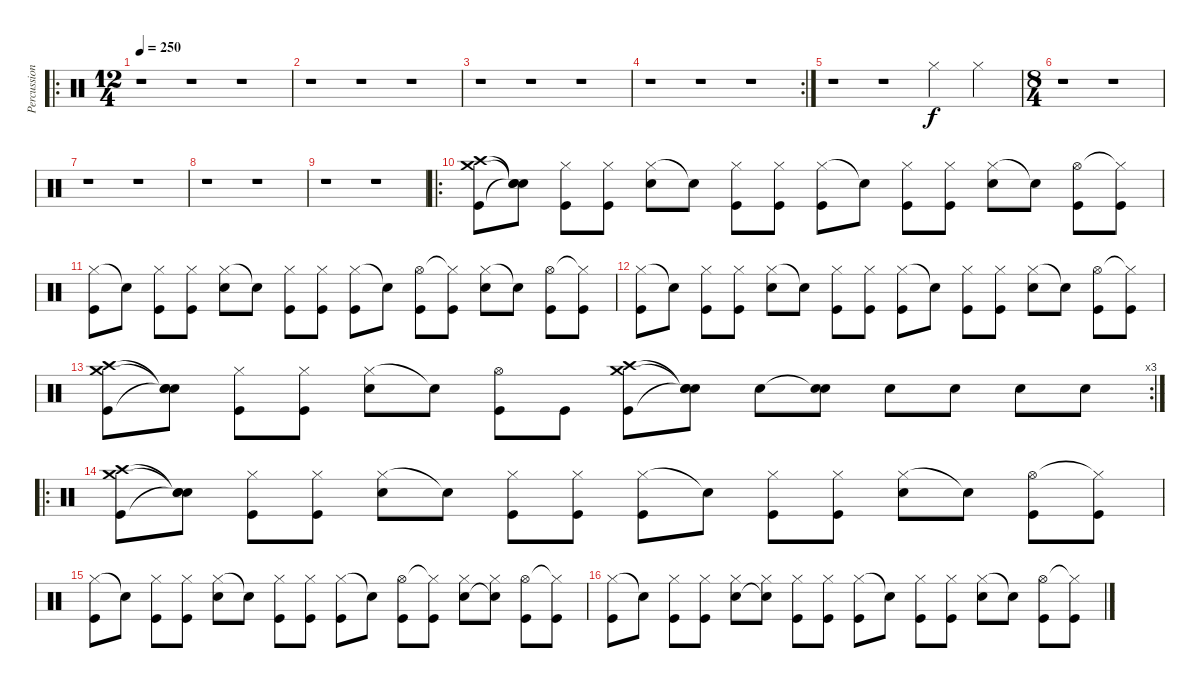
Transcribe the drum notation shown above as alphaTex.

\track ("Percussion" "Percussion") {instrument percussion}
\staff {score}
\articulation defaults
\ro
\ts (12 4)
\tempo 250
\clef neutral
\ks c
r.1{dy f} r.1 r.1 |
r.1 r.1 r.1 |
r.1 r.1 r.1 |
\rc 2
r.1 r.1 r.1 |
r.1 r.1 "Hi-Hat (closed)".2 "Hi-Hat (closed)".2 |
\ts (8 4)
r.1 r.1 |
r.1 r.1 |
r.1 r.1 |
r.1 r.1 |
\ro
("Crash medium (hit)" "Crash high (hit)" "Kick (hit)").8 ("Snare (hit)"{t} "Snare (hit)"{t} "Snare (hit)"{t}).8 ("Hi-Hat (closed)" "Kick (hit)").8 ("Hi-Hat (closed)" "Kick (hit)").8 ("Hi-Hat (closed)" "Snare (hit) 2").8 "Snare (hit)"{t}.8 ("Hi-Hat (closed)" "Kick (hit)").8 ("Hi-Hat (closed)" "Kick (hit)").8 ("Hi-Hat (closed)" "Kick (hit)").8 "Snare (hit)"{t}.8 ("Hi-Hat (closed)" "Kick (hit)").8 ("Hi-Hat (closed)" "Kick (hit)").8 ("Hi-Hat (closed)" "Snare (hit) 2").8 "Snare (hit)"{t}.8 ("Hi-Hat (open)" "Kick (hit)").8 ("Hi-Hat (closed)"{t} "Kick (hit)").8 |
("Hi-Hat (closed)" "Kick (hit)").8 "Snare (hit)"{t}.8 ("Hi-Hat (closed)" "Kick (hit)").8 ("Hi-Hat (closed)" "Kick (hit)").8 ("Hi-Hat (closed)" "Snare (hit) 2").8 "Snare (hit)"{t}.8 ("Hi-Hat (closed)" "Kick (hit)").8 ("Hi-Hat (closed)" "Kick (hit)").8 ("Hi-Hat (closed)" "Kick (hit)").8 "Snare (hit)"{t}.8 ("Hi-Hat (open)" "Kick (hit)").8 ("Hi-Hat (closed)"{t} "Kick (hit)").8 ("Hi-Hat (closed)" "Snare (hit) 2").8 "Snare (hit)"{t}.8 ("Hi-Hat (open)" "Kick (hit)").8 ("Hi-Hat (closed)"{t} "Kick (hit)").8 |
("Hi-Hat (closed)" "Kick (hit)").8 "Snare (hit)"{t}.8 ("Hi-Hat (closed)" "Kick (hit)").8 ("Hi-Hat (closed)" "Kick (hit)").8 ("Hi-Hat (closed)" "Snare (hit) 2").8 "Snare (hit)"{t}.8 ("Hi-Hat (closed)" "Kick (hit)").8 ("Hi-Hat (closed)" "Kick (hit)").8 ("Hi-Hat (closed)" "Kick (hit)").8 "Snare (hit)"{t}.8 ("Hi-Hat (closed)" "Kick (hit)").8 ("Hi-Hat (closed)" "Kick (hit)").8 ("Hi-Hat (closed)" "Snare (hit) 2").8 "Snare (hit)"{t}.8 ("Hi-Hat (open)" "Kick (hit)").8 ("Hi-Hat (closed)"{t} "Kick (hit)").8 |
\rc 3
("Crash medium (hit)" "Crash high (hit)" "Kick (hit)").8 ("Snare (hit)"{t} "Snare (hit)"{t} "Snare (hit)"{t}).8 ("Hi-Hat (closed)" "Kick (hit)").8 ("Hi-Hat (closed)" "Kick (hit)").8 ("Hi-Hat (closed)" "Snare (hit) 2").8 "Snare (hit)"{t}.8 ("Hi-Hat (open)" "Kick (hit)").8 "Kick (hit)".8 ("Crash medium (hit)" "Crash high (hit)" "Kick (hit)").8 ("Snare (hit)"{t} "Snare (hit)"{t} "Snare (hit)"{t}).8 "Snare (hit) 2".8 ("Snare (hit)"{t} "Snare (hit) 2").8 "Snare (hit) 2".8 "Snare (hit) 2".8 "Snare (hit) 2".8 "Snare (hit) 2".8 |
\ro
("Crash medium (hit)" "Crash high (hit)" "Kick (hit)").8 ("Snare (hit)"{t} "Snare (hit)"{t} "Snare (hit)"{t}).8 ("Hi-Hat (closed)" "Kick (hit)").8 ("Hi-Hat (closed)" "Kick (hit)").8 ("Hi-Hat (closed)" "Snare (hit) 2").8 "Snare (hit)"{t}.8 ("Hi-Hat (closed)" "Kick (hit)").8 ("Hi-Hat (closed)" "Kick (hit)").8 ("Hi-Hat (closed)" "Kick (hit)").8 "Snare (hit)"{t}.8 ("Hi-Hat (closed)" "Kick (hit)").8 ("Hi-Hat (closed)" "Kick (hit)").8 ("Hi-Hat (closed)" "Snare (hit) 2").8 "Snare (hit)"{t}.8 ("Hi-Hat (open)" "Kick (hit)").8 ("Hi-Hat (closed)"{t} "Kick (hit)").8 |
("Hi-Hat (closed)" "Kick (hit)").8 "Snare (hit)"{t}.8 ("Hi-Hat (closed)" "Kick (hit)").8 ("Hi-Hat (closed)" "Kick (hit)").8 ("Hi-Hat (closed)" "Snare (hit) 2").8 "Snare (hit)"{t}.8 ("Hi-Hat (closed)" "Kick (hit)").8 ("Hi-Hat (closed)" "Kick (hit)").8 ("Hi-Hat (closed)" "Kick (hit)").8 "Snare (hit)"{t}.8 ("Hi-Hat (open)" "Kick (hit)").8 ("Hi-Hat (closed)"{t} "Kick (hit)").8 ("Hi-Hat (closed)" "Snare (hit) 2").8 ("Hi-Hat (closed)" "Snare (hit)"{t}).8 ("Hi-Hat (open)" "Kick (hit)").8 ("Hi-Hat (closed)"{t} "Kick (hit)").8 |
("Hi-Hat (closed)" "Kick (hit)").8 "Snare (hit)"{t}.8 ("Hi-Hat (closed)" "Kick (hit)").8 ("Hi-Hat (closed)" "Kick (hit)").8 ("Hi-Hat (closed)" "Snare (hit) 2").8 ("Hi-Hat (closed)" "Snare (hit)"{t}).8 ("Hi-Hat (closed)" "Kick (hit)").8 ("Hi-Hat (closed)" "Kick (hit)").8 ("Hi-Hat (closed)" "Kick (hit)").8 "Snare (hit)"{t}.8 ("Hi-Hat (closed)" "Kick (hit)").8 ("Hi-Hat (closed)" "Kick (hit)").8 ("Hi-Hat (closed)" "Snare (hit) 2").8 "Snare (hit)"{t}.8 ("Hi-Hat (open)" "Kick (hit)").8 ("Hi-Hat (closed)"{t} "Kick (hit)").8
